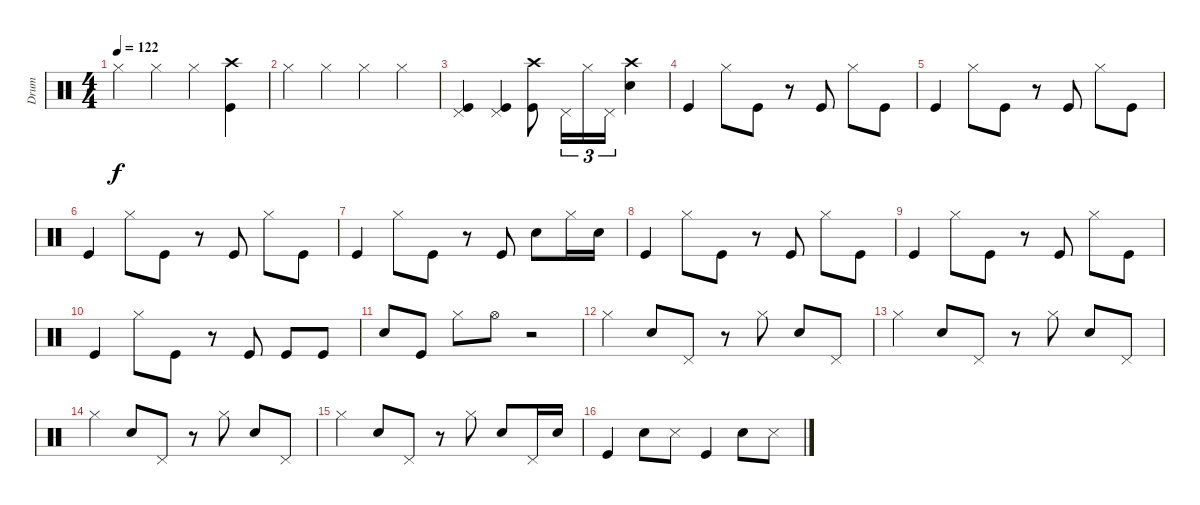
\track ("Drum" "Drum") {instrument percussion}
\staff {score}
\articulation defaults
\ts (4 4)
\tempo 122
\clef neutral
\ks c "Hi-Hat (closed)".4{dy f} "Hi-Hat (closed)".4 "Hi-Hat (closed)".4
("Crash high (hit)" "Kick (hit)").4 |
"Hi-Hat (closed)".4 "Hi-Hat (closed)".4 "Hi-Hat (closed)".4 "Hi-Hat (closed)".4 |
("Pedal Hi-Hat (hit)" "Kick (hit)").4 ("Pedal Hi-Hat (hit)" "Kick (hit)").4 ("Crash high (hit)" "Kick (hit)").8 "Pedal Hi-Hat (hit)".16{tu (3 2)} "Hi-Hat (closed)".16{tu (3 2)} "Pedal Hi-Hat (hit)".16{tu (3 2)} ("Crash high (hit)" "Snare (hit) 2").4 |
"Kick (hit)".4 "Hi-Hat (closed)".8 "Kick (hit)".8 r.8 "Kick (hit)".8 "Hi-Hat (closed)".8 "Kick (hit)".8 |
"Kick (hit)".4 "Hi-Hat (closed)".8 "Kick (hit)".8 r.8 "Kick (hit)".8 "Hi-Hat (closed)".8 "Kick (hit)".8 |
"Kick (hit)".4 "Hi-Hat (closed)".8 "Kick (hit)".8 r.8 "Kick (hit)".8 "Hi-Hat (closed)".8 "Kick (hit)".8 |
"Kick (hit)".4 "Hi-Hat (closed)".8 "Kick (hit)".8 r.8 "Kick (hit)".8 "Snare (hit) 2".8 "Hi-Hat (closed)".16 "Snare (hit) 2".16 |
"Kick (hit)".4 "Hi-Hat (closed)".8 "Kick (hit)".8 r.8 "Kick (hit)".8 "Hi-Hat (closed)".8 "Kick (hit)".8 |
"Kick (hit)".4 "Hi-Hat (closed)".8 "Kick (hit)".8 r.8 "Kick (hit)".8 "Hi-Hat (closed)".8 "Kick (hit)".8 |
"Kick (hit)".4 "Hi-Hat (closed)".8 "Kick (hit)".8 r.8 "Kick (hit)".8 "Kick (hit)".8 "Kick (hit)".8 |
"Snare (hit) 2".8 "Kick (hit)".8 "Hi-Hat (closed)".8 "Hi-Hat (open)".8 r.2 |
"Hi-Hat (closed)".4 "Snare (hit) 2".8 "Pedal Hi-Hat (hit)".8 r.8 "Hi-Hat (closed)".8 "Snare (hit) 2".8 "Pedal Hi-Hat (hit)".8 |
"Hi-Hat (closed)".4 "Snare (hit) 2".8 "Pedal Hi-Hat (hit)".8 r.8 "Hi-Hat (closed)".8 "Snare (hit) 2".8 "Pedal Hi-Hat (hit)".8 |
"Hi-Hat (closed)".4 "Snare (hit) 2".8 "Pedal Hi-Hat (hit)".8 r.8 "Hi-Hat (closed)".8 "Snare (hit) 2".8 "Pedal Hi-Hat (hit)".8 |
"Hi-Hat (closed)".4 "Snare (hit) 2".8 "Pedal Hi-Hat (hit)".8 r.8 "Hi-Hat (closed)".8 "Snare (hit) 2".8 "Pedal Hi-Hat (hit)".16 "Snare (hit) 2".16 |
"Kick (hit)".4 "Snare (hit) 2".8 "Snare (side stick) 3".8 "Kick (hit)".4 "Snare (hit) 2".8 "Snare (side stick) 3".8
